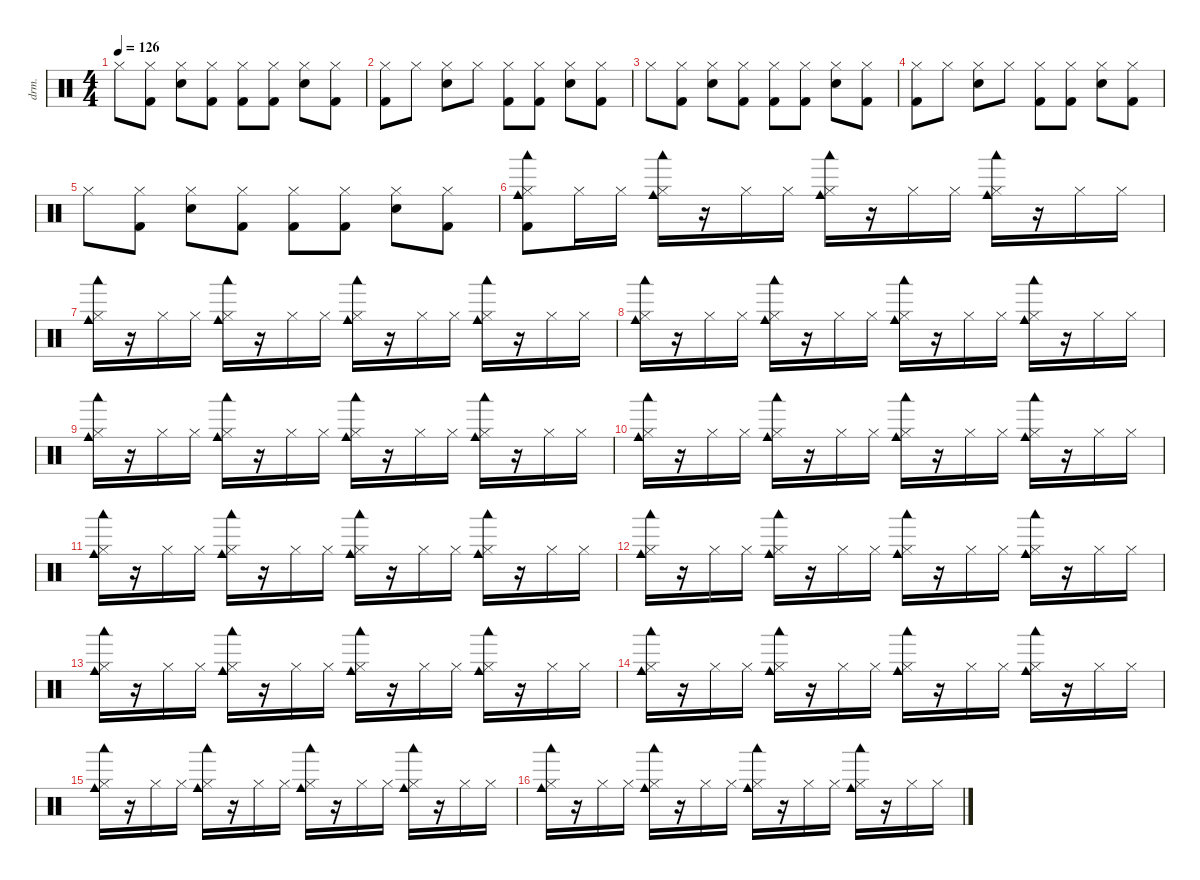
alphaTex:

\defaultSystemsLayout 4
\hideDynamics
\bracketExtendMode nobrackets
\otherSystemsTrackNameOrientation horizontal
\track ("Drums" "drm.") {instrument percussion}
\staff {score}
\articulation defaults
\ts (4 4)
\tempo 126
\clef neutral
\ks c "Hi-Hat (closed)".8{dy f beam Down}
("Kick (hit) 2" "Hi-Hat (closed)").8{beam Down} ("Snare (hit) 2" "Hi-Hat (closed)").8{beam Down} ("Kick (hit) 2" "Hi-Hat (closed)").8{beam Down} ("Hi-Hat (closed)" "Kick (hit) 2").8{beam Down} ("Hi-Hat (closed)" "Kick (hit) 2").8{beam Down} ("Snare (hit) 2" "Hi-Hat (closed)").8{beam Down} ("Kick (hit) 2" "Hi-Hat (closed)").8{beam Down} |
("Kick (hit) 2" "Hi-Hat (closed)").8{beam Down} "Hi-Hat (closed)".8{beam Down} ("Snare (hit) 2" "Hi-Hat (closed)").8{beam Down} "Hi-Hat (closed)".8{beam Down} ("Hi-Hat (closed)" "Kick (hit) 2").8{beam Down} ("Hi-Hat (closed)" "Kick (hit) 2").8{beam Down} ("Snare (hit) 2" "Hi-Hat (closed)").8{beam Down} ("Hi-Hat (closed)" "Kick (hit) 2").8{beam Down} |
"Hi-Hat (closed)".8{beam Down} ("Kick (hit) 2" "Hi-Hat (closed)").8{beam Down} ("Snare (hit) 2" "Hi-Hat (closed)").8{beam Down} ("Kick (hit) 2" "Hi-Hat (closed)").8{beam Down} ("Hi-Hat (closed)" "Kick (hit) 2").8{beam Down} ("Hi-Hat (closed)" "Kick (hit) 2").8{beam Down} ("Snare (hit) 2" "Hi-Hat (closed)").8{beam Down} ("Kick (hit) 2" "Hi-Hat (closed)").8{beam Down} |
("Kick (hit) 2" "Hi-Hat (closed)").8{beam Down} "Hi-Hat (closed)".8{beam Down} ("Snare (hit) 2" "Hi-Hat (closed)").8{beam Down} "Hi-Hat (closed)".8{beam Down} ("Hi-Hat (closed)" "Kick (hit) 2").8{beam Down} ("Hi-Hat (closed)" "Kick (hit) 2").8{beam Down} ("Snare (hit) 2" "Hi-Hat (closed)").8{beam Down} ("Hi-Hat (closed)" "Kick (hit) 2").8{beam Down} |
"Hi-Hat (closed)".8{beam Down} ("Kick (hit) 2" "Hi-Hat (closed)").8{beam Down} ("Snare (hit) 2" "Hi-Hat (closed)").8{beam Down} ("Kick (hit) 2" "Hi-Hat (closed)").8{beam Down} ("Hi-Hat (closed)" "Kick (hit) 2").8{beam Down} ("Hi-Hat (closed)" "Kick (hit) 2").8{beam Down} ("Snare (hit) 2" "Hi-Hat (closed)").8{beam Down} ("Kick (hit) 2" "Hi-Hat (closed)").8{beam Down} |
("Kick (hit) 2" "Cowbell medium (hit)" "Hi-Hat (closed)" "Woodblock low (hit)").8{beam Down} "Hi-Hat (closed)".16{beam Down} "Hi-Hat (closed)".16{beam Down} ("Cowbell medium (hit)" "Hi-Hat (closed)" "Woodblock low (hit)").16{beam Down} r.16{beam Down} "Hi-Hat (closed)".16{beam Down} "Hi-Hat (closed)".16{beam Down} ("Cowbell medium (hit)" "Hi-Hat (closed)" "Woodblock low (hit)").16{beam Down} r.16{beam Down} "Hi-Hat (closed)".16{beam Down} "Hi-Hat (closed)".16{beam Down} ("Cowbell medium (hit)" "Hi-Hat (closed)" "Woodblock low (hit)").16{beam Down} r.16{beam Down} "Hi-Hat (closed)".16{beam Down} "Hi-Hat (closed)".16{beam Down} |
("Cowbell medium (hit)" "Hi-Hat (closed)" "Woodblock low (hit)").16{beam Down} r.16{beam Down} "Hi-Hat (closed)".16{beam Down} "Hi-Hat (closed)".16{beam Down} ("Cowbell medium (hit)" "Hi-Hat (closed)" "Woodblock low (hit)").16{beam Down} r.16{beam Down} "Hi-Hat (closed)".16{beam Down} "Hi-Hat (closed)".16{beam Down} ("Cowbell medium (hit)" "Hi-Hat (closed)" "Woodblock low (hit)").16{beam Down} r.16{beam Down} "Hi-Hat (closed)".16{beam Down} "Hi-Hat (closed)".16{beam Down} ("Cowbell medium (hit)" "Hi-Hat (closed)" "Woodblock low (hit)").16{beam Down} r.16{beam Down} "Hi-Hat (closed)".16{beam Down} "Hi-Hat (closed)".16{beam Down} |
("Cowbell medium (hit)" "Hi-Hat (closed)" "Woodblock low (hit)").16{beam Down} r.16{beam Down} "Hi-Hat (closed)".16{beam Down} "Hi-Hat (closed)".16{beam Down} ("Cowbell medium (hit)" "Hi-Hat (closed)" "Woodblock low (hit)").16{beam Down} r.16{beam Down} "Hi-Hat (closed)".16{beam Down} "Hi-Hat (closed)".16{beam Down} ("Cowbell medium (hit)" "Hi-Hat (closed)" "Woodblock low (hit)").16{beam Down} r.16{beam Down} "Hi-Hat (closed)".16{beam Down} "Hi-Hat (closed)".16{beam Down} ("Cowbell medium (hit)" "Hi-Hat (closed)" "Woodblock low (hit)").16{beam Down} r.16{beam Down} "Hi-Hat (closed)".16{beam Down} "Hi-Hat (closed)".16{beam Down} |
("Cowbell medium (hit)" "Hi-Hat (closed)" "Woodblock low (hit)").16{beam Down} r.16{beam Down} "Hi-Hat (closed)".16{beam Down} "Hi-Hat (closed)".16{beam Down} ("Cowbell medium (hit)" "Hi-Hat (closed)" "Woodblock low (hit)").16{beam Down} r.16{beam Down} "Hi-Hat (closed)".16{beam Down} "Hi-Hat (closed)".16{beam Down} ("Cowbell medium (hit)" "Hi-Hat (closed)" "Woodblock low (hit)").16{beam Down} r.16{beam Down} "Hi-Hat (closed)".16{beam Down} "Hi-Hat (closed)".16{beam Down} ("Cowbell medium (hit)" "Hi-Hat (closed)" "Woodblock low (hit)").16{beam Down} r.16{beam Down} "Hi-Hat (closed)".16{beam Down} "Hi-Hat (closed)".16{beam Down} |
("Cowbell medium (hit)" "Hi-Hat (closed)" "Woodblock low (hit)").16{beam Down} r.16{beam Down} "Hi-Hat (closed)".16{beam Down} "Hi-Hat (closed)".16{beam Down} ("Cowbell medium (hit)" "Hi-Hat (closed)" "Woodblock low (hit)").16{beam Down} r.16{beam Down} "Hi-Hat (closed)".16{beam Down} "Hi-Hat (closed)".16{beam Down} ("Cowbell medium (hit)" "Hi-Hat (closed)" "Woodblock low (hit)").16{beam Down} r.16{beam Down} "Hi-Hat (closed)".16{beam Down} "Hi-Hat (closed)".16{beam Down} ("Cowbell medium (hit)" "Hi-Hat (closed)" "Woodblock low (hit)").16{beam Down} r.16{beam Down} "Hi-Hat (closed)".16{beam Down} "Hi-Hat (closed)".16{beam Down} |
("Cowbell medium (hit)" "Hi-Hat (closed)" "Woodblock low (hit)").16{beam Down} r.16{beam Down} "Hi-Hat (closed)".16{beam Down} "Hi-Hat (closed)".16{beam Down} ("Cowbell medium (hit)" "Hi-Hat (closed)" "Woodblock low (hit)").16{beam Down} r.16{beam Down} "Hi-Hat (closed)".16{beam Down} "Hi-Hat (closed)".16{beam Down} ("Cowbell medium (hit)" "Hi-Hat (closed)" "Woodblock low (hit)").16{beam Down} r.16{beam Down} "Hi-Hat (closed)".16{beam Down} "Hi-Hat (closed)".16{beam Down} ("Cowbell medium (hit)" "Hi-Hat (closed)" "Woodblock low (hit)").16{beam Down} r.16{beam Down} "Hi-Hat (closed)".16{beam Down} "Hi-Hat (closed)".16{beam Down} |
("Cowbell medium (hit)" "Hi-Hat (closed)" "Woodblock low (hit)").16{beam Down} r.16{beam Down} "Hi-Hat (closed)".16{beam Down} "Hi-Hat (closed)".16{beam Down} ("Cowbell medium (hit)" "Hi-Hat (closed)" "Woodblock low (hit)").16{beam Down} r.16{beam Down} "Hi-Hat (closed)".16{beam Down} "Hi-Hat (closed)".16{beam Down} ("Cowbell medium (hit)" "Hi-Hat (closed)" "Woodblock low (hit)").16{beam Down} r.16{beam Down} "Hi-Hat (closed)".16{beam Down} "Hi-Hat (closed)".16{beam Down} ("Cowbell medium (hit)" "Hi-Hat (closed)" "Woodblock low (hit)").16{beam Down} r.16{beam Down} "Hi-Hat (closed)".16{beam Down} "Hi-Hat (closed)".16{beam Down} |
("Cowbell medium (hit)" "Hi-Hat (closed)" "Woodblock low (hit)").16{beam Down} r.16{beam Down} "Hi-Hat (closed)".16{beam Down} "Hi-Hat (closed)".16{beam Down} ("Cowbell medium (hit)" "Hi-Hat (closed)" "Woodblock low (hit)").16{beam Down} r.16{beam Down} "Hi-Hat (closed)".16{beam Down} "Hi-Hat (closed)".16{beam Down} ("Cowbell medium (hit)" "Hi-Hat (closed)" "Woodblock low (hit)").16{beam Down} r.16{beam Down} "Hi-Hat (closed)".16{beam Down} "Hi-Hat (closed)".16{beam Down} ("Cowbell medium (hit)" "Hi-Hat (closed)" "Woodblock low (hit)").16{beam Down} r.16{beam Down} "Hi-Hat (closed)".16{beam Down} "Hi-Hat (closed)".16{beam Down} |
("Cowbell medium (hit)" "Hi-Hat (closed)" "Woodblock low (hit)").16{beam Down} r.16{beam Down} "Hi-Hat (closed)".16{beam Down} "Hi-Hat (closed)".16{beam Down} ("Cowbell medium (hit)" "Hi-Hat (closed)" "Woodblock low (hit)").16{beam Down} r.16{beam Down} "Hi-Hat (closed)".16{beam Down} "Hi-Hat (closed)".16{beam Down} ("Cowbell medium (hit)" "Hi-Hat (closed)" "Woodblock low (hit)").16{beam Down} r.16{beam Down} "Hi-Hat (closed)".16{beam Down} "Hi-Hat (closed)".16{beam Down} ("Cowbell medium (hit)" "Hi-Hat (closed)" "Woodblock low (hit)").16{beam Down} r.16{beam Down} "Hi-Hat (closed)".16{beam Down} "Hi-Hat (closed)".16{beam Down} |
("Cowbell medium (hit)" "Hi-Hat (closed)" "Woodblock low (hit)").16{beam Down} r.16{beam Down} "Hi-Hat (closed)".16{beam Down} "Hi-Hat (closed)".16{beam Down} ("Cowbell medium (hit)" "Hi-Hat (closed)" "Woodblock low (hit)").16{beam Down} r.16{beam Down} "Hi-Hat (closed)".16{beam Down} "Hi-Hat (closed)".16{beam Down} ("Cowbell medium (hit)" "Hi-Hat (closed)" "Woodblock low (hit)").16{beam Down} r.16{beam Down} "Hi-Hat (closed)".16{beam Down} "Hi-Hat (closed)".16{beam Down} ("Cowbell medium (hit)" "Hi-Hat (closed)" "Woodblock low (hit)").16{beam Down} r.16{beam Down} "Hi-Hat (closed)".16{beam Down} "Hi-Hat (closed)".16{beam Down} |
("Cowbell medium (hit)" "Hi-Hat (closed)" "Woodblock low (hit)").16{beam Down} r.16{beam Down} "Hi-Hat (closed)".16{beam Down} "Hi-Hat (closed)".16{beam Down} ("Cowbell medium (hit)" "Hi-Hat (closed)" "Woodblock low (hit)").16{beam Down} r.16{beam Down} "Hi-Hat (closed)".16{beam Down} "Hi-Hat (closed)".16{beam Down} ("Cowbell medium (hit)" "Hi-Hat (closed)" "Woodblock low (hit)").16{beam Down} r.16{beam Down} "Hi-Hat (closed)".16{beam Down} "Hi-Hat (closed)".16{beam Down} ("Cowbell medium (hit)" "Hi-Hat (closed)" "Woodblock low (hit)").16{beam Down} r.16{beam Down} "Hi-Hat (closed)".16{beam Down} "Hi-Hat (closed)".16{beam Down}
